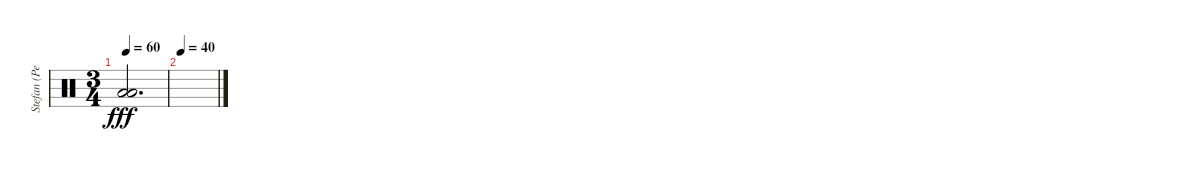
\track ("Stefan (Percussion)" "Stefan (Pe") {instrument percussion}
\staff {score}
\articulation defaults
\ts (3 4)
\tempo 60
\clef neutral
\ks c
("Low Floor Tom (hit)" "Low Floor Tom (hit)").2{d dy fff} |
\tempo 40
